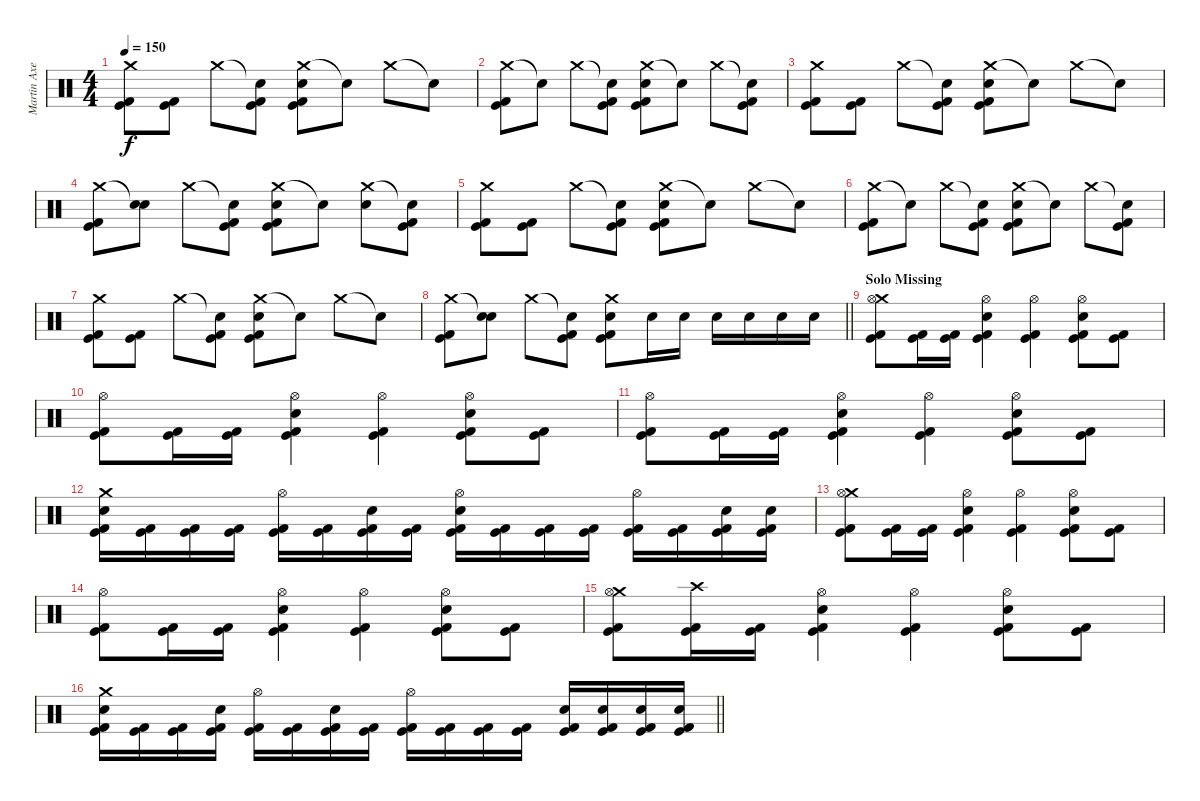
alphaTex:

\track ("Martin Axenrot" "Martin Axe") {instrument percussion}
\staff {score}
\articulation defaults
\ts (4 4)
\tempo 150
\clef neutral
\ks c
("Crash medium (hit)" "Kick (hit) 2" "Kick (hit)").8{dy f} ("Kick (hit) 2" "Kick (hit)").8 "Crash medium (hit)".8 ("Snare (hit)"{t} "Kick (hit) 2" "Kick (hit)").8 ("Crash medium (hit)" "Electric Snare (hit)" "Kick (hit) 2" "Kick (hit)").8 "Snare (hit)"{t}.8 "Crash medium (hit)".8 "Snare (hit)"{t}.8 |
("Crash medium (hit)" "Kick (hit) 2" "Kick (hit)").8 "Snare (hit)"{t}.8 "Crash medium (hit)".8 ("Snare (hit)"{t} "Kick (hit) 2" "Kick (hit)").8 ("Crash medium (hit)" "Electric Snare (hit)" "Kick (hit) 2" "Kick (hit)").8 "Snare (hit)"{t}.8 "Crash medium (hit)".8 ("Snare (hit)"{t} "Kick (hit) 2" "Kick (hit)").8 |
("Crash medium (hit)" "Kick (hit) 2" "Kick (hit)").8 ("Kick (hit) 2" "Kick (hit)").8 "Crash medium (hit)".8 ("Snare (hit)"{t} "Kick (hit) 2" "Kick (hit)").8 ("Crash medium (hit)" "Electric Snare (hit)" "Kick (hit) 2" "Kick (hit)").8 "Snare (hit)"{t}.8 "Crash medium (hit)".8 "Snare (hit)"{t}.8 |
("Crash medium (hit)" "Kick (hit) 2" "Kick (hit)").8 ("Snare (hit)"{t} "Electric Snare (hit)").8 "Crash medium (hit)".8 ("Snare (hit)"{t} "Kick (hit) 2" "Kick (hit)").8 ("Crash medium (hit)" "Electric Snare (hit)" "Kick (hit) 2" "Kick (hit)").8 "Snare (hit)"{t}.8 ("Crash medium (hit)" "Electric Snare (hit)").8 ("Snare (hit)"{t} "Kick (hit) 2" "Kick (hit)").8 |
("Crash medium (hit)" "Kick (hit) 2" "Kick (hit)").8 ("Kick (hit) 2" "Kick (hit)").8 "Crash medium (hit)".8 ("Snare (hit)"{t} "Kick (hit) 2" "Kick (hit)").8 ("Crash medium (hit)" "Electric Snare (hit)" "Kick (hit) 2" "Kick (hit)").8 "Snare (hit)"{t}.8 "Crash medium (hit)".8 "Snare (hit)"{t}.8 |
("Crash medium (hit)" "Kick (hit) 2" "Kick (hit)").8 "Snare (hit)"{t}.8 "Crash medium (hit)".8 ("Snare (hit)"{t} "Kick (hit) 2" "Kick (hit)").8 ("Crash medium (hit)" "Electric Snare (hit)" "Kick (hit) 2" "Kick (hit)").8 "Snare (hit)"{t}.8 "Crash medium (hit)".8 ("Snare (hit)"{t} "Kick (hit) 2" "Kick (hit)").8 |
("Crash medium (hit)" "Kick (hit) 2" "Kick (hit)").8 ("Kick (hit) 2" "Kick (hit)").8 "Crash medium (hit)".8 ("Snare (hit)"{t} "Kick (hit) 2" "Kick (hit)").8 ("Crash medium (hit)" "Electric Snare (hit)" "Kick (hit) 2" "Kick (hit)").8 "Snare (hit)"{t}.8 "Crash medium (hit)".8 "Snare (hit)"{t}.8 |
\barLineRight lightlight
("Crash medium (hit)" "Kick (hit) 2" "Kick (hit)").8 ("Snare (hit)"{t} "Electric Snare (hit)").8 "Crash medium (hit)".8 ("Snare (hit)"{t} "Kick (hit) 2" "Kick (hit)").8 ("Crash medium (hit)" "Electric Snare (hit)" "Kick (hit) 2" "Kick (hit)").8 "Electric Snare (hit)".16 "Electric Snare (hit)".16 "Electric Snare (hit)".16 "Electric Snare (hit)".16 "Electric Snare (hit)".16 "Electric Snare (hit)".16 |
\section ("" "Solo Missing")
("Crash medium (hit)" "Hi-Hat (open)" "Kick (hit) 2" "Kick (hit)").8 ("Kick (hit) 2" "Kick (hit)").16 ("Kick (hit) 2" "Kick (hit)").16 ("Hi-Hat (open)" "Electric Snare (hit)" "Kick (hit) 2" "Kick (hit)").4 ("Hi-Hat (open)" "Kick (hit) 2" "Kick (hit)").4 ("Hi-Hat (open)" "Electric Snare (hit)" "Kick (hit) 2" "Kick (hit)").8 ("Kick (hit) 2" "Kick (hit)").8 |
("Hi-Hat (open)" "Kick (hit) 2" "Kick (hit)").8 ("Kick (hit) 2" "Kick (hit)").16 ("Kick (hit) 2" "Kick (hit)").16 ("Hi-Hat (open)" "Electric Snare (hit)" "Kick (hit) 2" "Kick (hit)").4 ("Hi-Hat (open)" "Kick (hit) 2" "Kick (hit)").4 ("Hi-Hat (open)" "Electric Snare (hit)" "Kick (hit) 2" "Kick (hit)").8 ("Kick (hit) 2" "Kick (hit)").8 |
("Hi-Hat (open)" "Kick (hit) 2" "Kick (hit)").8 ("Kick (hit) 2" "Kick (hit)").16 ("Kick (hit) 2" "Kick (hit)").16 ("Hi-Hat (open)" "Electric Snare (hit)" "Kick (hit) 2" "Kick (hit)").4 ("Hi-Hat (open)" "Kick (hit) 2" "Kick (hit)").4 ("Hi-Hat (open)" "Electric Snare (hit)" "Kick (hit) 2" "Kick (hit)").8 ("Kick (hit) 2" "Kick (hit)").8 |
("Crash medium (hit)" "Electric Snare (hit)" "Kick (hit) 2" "Kick (hit)").16 ("Kick (hit) 2" "Kick (hit)").16 ("Kick (hit) 2" "Kick (hit)").16 ("Kick (hit) 2" "Kick (hit)").16 ("Hi-Hat (open)" "Kick (hit) 2" "Kick (hit)").16 ("Kick (hit) 2" "Kick (hit)").16 ("Electric Snare (hit)" "Kick (hit) 2" "Kick (hit)").16 ("Kick (hit) 2" "Kick (hit)").16 ("Hi-Hat (open)" "Electric Snare (hit)" "Kick (hit) 2" "Kick (hit)").16 ("Kick (hit) 2" "Kick (hit)").16 ("Kick (hit) 2" "Kick (hit)").16 ("Kick (hit) 2" "Kick (hit)").16 ("Hi-Hat (open)" "Kick (hit) 2" "Kick (hit)").16 ("Kick (hit) 2" "Kick (hit)").16 ("Electric Snare (hit)" "Kick (hit) 2" "Kick (hit)").16 ("Electric Snare (hit)" "Kick (hit) 2" "Kick (hit)").16 |
("Crash medium (hit)" "Hi-Hat (open)" "Kick (hit) 2" "Kick (hit)").8 ("Kick (hit) 2" "Kick (hit)").16 ("Kick (hit) 2" "Kick (hit)").16 ("Hi-Hat (open)" "Electric Snare (hit)" "Kick (hit) 2" "Kick (hit)").4 ("Hi-Hat (open)" "Kick (hit) 2" "Kick (hit)").4 ("Hi-Hat (open)" "Electric Snare (hit)" "Kick (hit) 2" "Kick (hit)").8 ("Kick (hit) 2" "Kick (hit)").8 |
("Hi-Hat (open)" "Kick (hit) 2" "Kick (hit)").8 ("Kick (hit) 2" "Kick (hit)").16 ("Kick (hit) 2" "Kick (hit)").16 ("Hi-Hat (open)" "Electric Snare (hit)" "Kick (hit) 2" "Kick (hit)").4 ("Hi-Hat (open)" "Kick (hit) 2" "Kick (hit)").4 ("Hi-Hat (open)" "Electric Snare (hit)" "Kick (hit) 2" "Kick (hit)").8 ("Kick (hit) 2" "Kick (hit)").8 |
("Crash medium (hit)" "Hi-Hat (open)" "Kick (hit) 2" "Kick (hit)").8 ("Crash high (hit)" "Kick (hit) 2" "Kick (hit)").16 ("Kick (hit) 2" "Kick (hit)").16 ("Hi-Hat (open)" "Electric Snare (hit)" "Kick (hit) 2" "Kick (hit)").4 ("Hi-Hat (open)" "Kick (hit) 2" "Kick (hit)").4 ("Hi-Hat (open)" "Electric Snare (hit)" "Kick (hit) 2" "Kick (hit)").8 ("Kick (hit) 2" "Kick (hit)").8 |
\barLineRight lightlight
("Crash medium (hit)" "Electric Snare (hit)" "Kick (hit) 2" "Kick (hit)").16 ("Kick (hit) 2" "Kick (hit)").16 ("Kick (hit) 2" "Kick (hit)").16 ("Electric Snare (hit)" "Kick (hit) 2" "Kick (hit)").16 ("Hi-Hat (open)" "Kick (hit) 2" "Kick (hit)").16 ("Kick (hit) 2" "Kick (hit)").16 ("Electric Snare (hit)" "Kick (hit) 2" "Kick (hit)").16 ("Kick (hit) 2" "Kick (hit)").16 ("Hi-Hat (open)" "Kick (hit) 2" "Kick (hit)").16 ("Kick (hit) 2" "Kick (hit)").16 ("Kick (hit) 2" "Kick (hit)").16 ("Kick (hit) 2" "Kick (hit)").16 ("Electric Snare (hit)" "Kick (hit) 2" "Kick (hit)").16 ("Electric Snare (hit)" "Kick (hit) 2" "Kick (hit)").16 ("Electric Snare (hit)" "Kick (hit) 2" "Kick (hit)").16 ("Electric Snare (hit)" "Kick (hit) 2" "Kick (hit)").16
